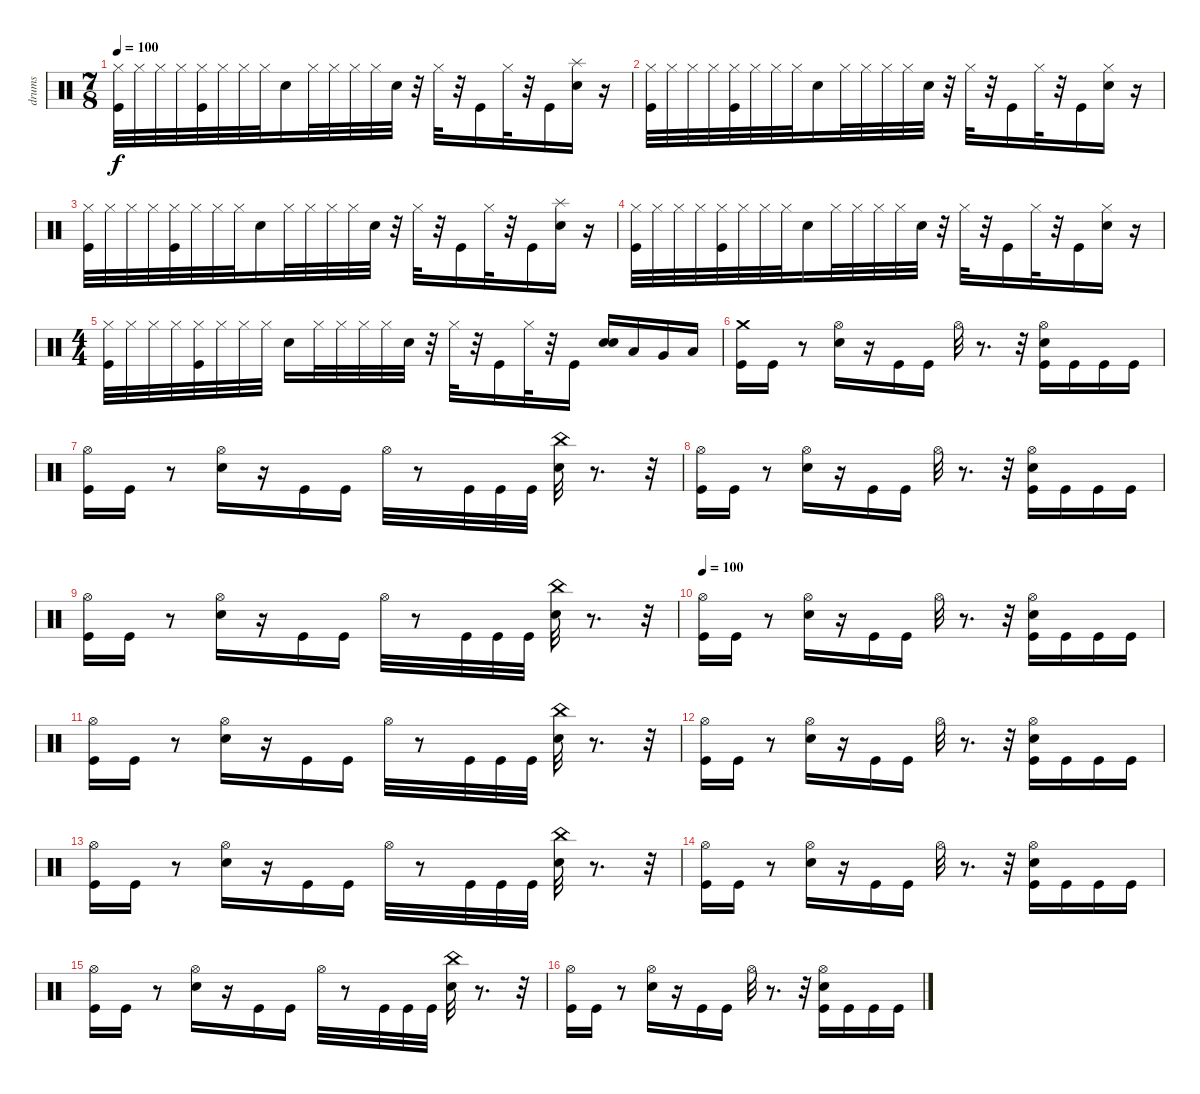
\track ("drums" "drums") {instrument percussion}
\staff {score}
\articulation defaults
\ts (7 8)
\tempo 100
\clef neutral
\ks c
("Kick (hit)" "Hi-Hat (closed)").32{dy f} "Hi-Hat (closed)".32 "Hi-Hat (closed)".32 "Hi-Hat (closed)".32 ("Kick (hit)" "Hi-Hat (closed)").32 "Hi-Hat (closed)".32 "Hi-Hat (closed)".32 "Hi-Hat (closed)".32 "Electric Snare (hit)".16 "Hi-Hat (closed)".32 "Hi-Hat (closed)".32 "Hi-Hat (closed)".32 "Hi-Hat (closed)".32 "Electric Snare (hit)".32 r.32 "Hi-Hat (closed)".32 r.32 "Kick (hit)".16 "Hi-Hat (closed)".32 r.32 "Kick (hit)".16 ("Splash (hit)" "Electric Snare (hit)").16 r.16 |
("Kick (hit)" "Hi-Hat (closed)").32 "Hi-Hat (closed)".32 "Hi-Hat (closed)".32 "Hi-Hat (closed)".32 ("Kick (hit)" "Hi-Hat (closed)").32 "Hi-Hat (closed)".32 "Hi-Hat (closed)".32 "Hi-Hat (closed)".32 "Electric Snare (hit)".16 "Hi-Hat (closed)".32 "Hi-Hat (closed)".32 "Hi-Hat (closed)".32 "Hi-Hat (closed)".32 "Electric Snare (hit)".32 r.32 "Hi-Hat (closed)".32 r.32 "Kick (hit)".16 "Hi-Hat (closed)".32 r.32 "Kick (hit)".16 ("Electric Snare (hit)" "Hi-Hat (closed)").16 r.16 |
("Kick (hit)" "Hi-Hat (closed)").32 "Hi-Hat (closed)".32 "Hi-Hat (closed)".32 "Hi-Hat (closed)".32 ("Kick (hit)" "Hi-Hat (closed)").32 "Hi-Hat (closed)".32 "Hi-Hat (closed)".32 "Hi-Hat (closed)".32 "Electric Snare (hit)".16 "Hi-Hat (closed)".32 "Hi-Hat (closed)".32 "Hi-Hat (closed)".32 "Hi-Hat (closed)".32 "Electric Snare (hit)".32 r.32 "Hi-Hat (closed)".32 r.32 "Kick (hit)".16 "Hi-Hat (closed)".32 r.32 "Kick (hit)".16 ("Electric Snare (hit)" "Splash (hit)").16 r.16 |
("Hi-Hat (closed)" "Kick (hit)").32 "Hi-Hat (closed)".32 "Hi-Hat (closed)".32 "Hi-Hat (closed)".32 ("Kick (hit)" "Hi-Hat (closed)").32 "Hi-Hat (closed)".32 "Hi-Hat (closed)".32 "Hi-Hat (closed)".32 "Electric Snare (hit)".16 "Hi-Hat (closed)".32 "Hi-Hat (closed)".32 "Hi-Hat (closed)".32 "Hi-Hat (closed)".32 "Electric Snare (hit)".32 r.32 "Hi-Hat (closed)".32 r.32 "Kick (hit)".16 "Hi-Hat (closed)".32 r.32 "Kick (hit)".16 ("Hi-Hat (closed)" "Electric Snare (hit)").16 r.16 |
\ts (4 4)
("Hi-Hat (closed)" "Kick (hit)").32 "Hi-Hat (closed)".32 "Hi-Hat (closed)".32 "Hi-Hat (closed)".32 ("Hi-Hat (closed)" "Kick (hit)").32 "Hi-Hat (closed)".32 "Hi-Hat (closed)".32 "Hi-Hat (closed)".32 "Electric Snare (hit)".16 "Hi-Hat (closed)".32 "Hi-Hat (closed)".32 "Hi-Hat (closed)".32 "Hi-Hat (closed)".32 "Electric Snare (hit)".32 r.32 "Hi-Hat (closed)".32 r.32 "Kick (hit)".16 "Hi-Hat (closed)".32 r.32 "Kick (hit)".16 ("Electric Snare (hit)" "Electric Snare (hit)").16 "Low Tom (hit)".16 "Very Low Tom (hit)".16 "Low Floor Tom (hit)".16 |
("Crash medium (hit)" "Kick (hit)").16 "Kick (hit)".16 r.8 ("Electric Snare (hit)" "Hi-Hat (open)").16 r.16 "Kick (hit)".16 "Kick (hit)".16 "Hi-Hat (open)".32 r.8{d} r.32 ("Kick (hit)" "Electric Snare (hit)" "Hi-Hat (open)").16 "Kick (hit)".16 "Kick (hit)".16 "Kick (hit)".16 |
("Kick (hit)" "Hi-Hat (open)").16 "Kick (hit)".16 r.8 ("Hi-Hat (open)" "Electric Snare (hit)").16 r.16 "Kick (hit)".16 "Kick (hit)".16 "Hi-Hat (open)".32 r.8 "Kick (hit)".32 "Kick (hit)".32 "Kick (hit)".32 ("China (hit)" "Electric Snare (hit)").32 r.8{d} r.32 |
("Hi-Hat (open)" "Kick (hit)").16 "Kick (hit)".16 r.8 ("Hi-Hat (open)" "Electric Snare (hit)").16 r.16 "Kick (hit)".16 "Kick (hit)".16 "Hi-Hat (open)".32 r.8{d} r.32 ("Kick (hit)" "Electric Snare (hit)" "Hi-Hat (open)").16 "Kick (hit)".16 "Kick (hit)".16 "Kick (hit)".16 |
("Hi-Hat (open)" "Kick (hit)").16 "Kick (hit)".16 r.8 ("Electric Snare (hit)" "Hi-Hat (open)").16 r.16 "Kick (hit)".16 "Kick (hit)".16 "Hi-Hat (open)".32 r.8 "Kick (hit)".32 "Kick (hit)".32 "Kick (hit)".32 ("Electric Snare (hit)" "China (hit)").32 r.8{d} r.32 |
\tempo 100
("Kick (hit)" "Hi-Hat (open)").16 "Kick (hit)".16 r.8 ("Electric Snare (hit)" "Hi-Hat (open)").16 r.16 "Kick (hit)".16 "Kick (hit)".16 "Hi-Hat (open)".32 r.8{d} r.32 ("Kick (hit)" "Electric Snare (hit)" "Hi-Hat (open)").16 "Kick (hit)".16 "Kick (hit)".16 "Kick (hit)".16 |
("Kick (hit)" "Hi-Hat (open)").16 "Kick (hit)".16 r.8 ("Hi-Hat (open)" "Electric Snare (hit)").16 r.16 "Kick (hit)".16 "Kick (hit)".16 "Hi-Hat (open)".32 r.8 "Kick (hit)".32 "Kick (hit)".32 "Kick (hit)".32 ("Electric Snare (hit)" "China (hit)").32 r.8{d} r.32 |
("Hi-Hat (open)" "Kick (hit)").16 "Kick (hit)".16 r.8 ("Hi-Hat (open)" "Electric Snare (hit)").16 r.16 "Kick (hit)".16 "Kick (hit)".16 "Hi-Hat (open)".32 r.8{d} r.32 ("Kick (hit)" "Electric Snare (hit)" "Hi-Hat (open)").16 "Kick (hit)".16 "Kick (hit)".16 "Kick (hit)".16 |
("Hi-Hat (open)" "Kick (hit)").16 "Kick (hit)".16 r.8 ("Hi-Hat (open)" "Electric Snare (hit)").16 r.16 "Kick (hit)".16 "Kick (hit)".16 "Hi-Hat (open)".32 r.8 "Kick (hit)".32 "Kick (hit)".32 "Kick (hit)".32 ("China (hit)" "Electric Snare (hit)").32 r.8{d} r.32 |
("Kick (hit)" "Hi-Hat (open)").16 "Kick (hit)".16 r.8 ("Hi-Hat (open)" "Electric Snare (hit)").16 r.16 "Kick (hit)".16 "Kick (hit)".16 "Hi-Hat (open)".32 r.8{d} r.32 ("Kick (hit)" "Hi-Hat (open)" "Electric Snare (hit)").16 "Kick (hit)".16 "Kick (hit)".16 "Kick (hit)".16 |
("Hi-Hat (open)" "Kick (hit)").16 "Kick (hit)".16 r.8 ("Electric Snare (hit)" "Hi-Hat (open)").16 r.16 "Kick (hit)".16 "Kick (hit)".16 "Hi-Hat (open)".32 r.8 "Kick (hit)".32 "Kick (hit)".32 "Kick (hit)".32 ("China (hit)" "Electric Snare (hit)").32 r.8{d} r.32 |
("Hi-Hat (open)" "Kick (hit)").16 "Kick (hit)".16 r.8 ("Hi-Hat (open)" "Electric Snare (hit)").16 r.16 "Kick (hit)".16 "Kick (hit)".16 "Hi-Hat (open)".32 r.8{d} r.32 ("Kick (hit)" "Hi-Hat (open)" "Electric Snare (hit)").16 "Kick (hit)".16 "Kick (hit)".16 "Kick (hit)".16
